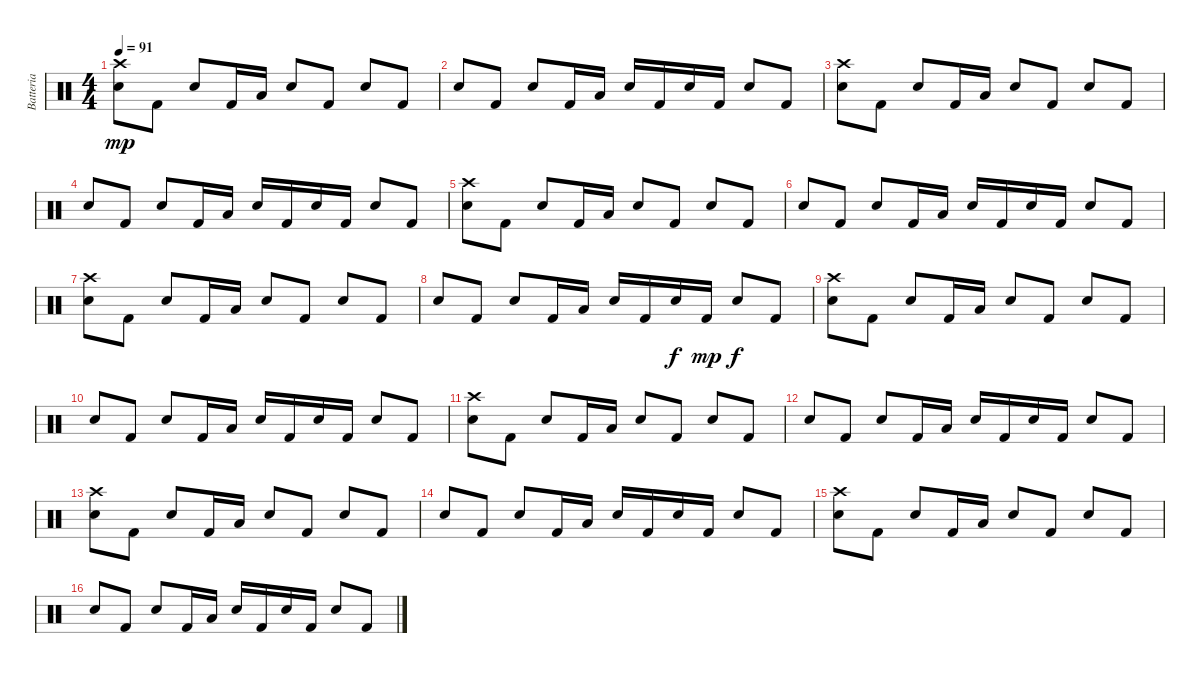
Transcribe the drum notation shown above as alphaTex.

\track ("Batteria" "Batteria") {instrument percussion}
\staff {score}
\articulation defaults
\ts (4 4)
\tempo 91
\clef neutral
\ks c
("Crash high (hit)" "Electric Snare (hit)").8{dy mp} "Kick (hit) 2".8 "Electric Snare (hit)".8 "Kick (hit) 2".16 "Low Floor Tom (hit)".16 "Electric Snare (hit)".8 "Kick (hit) 2".8 "Electric Snare (hit)".8 "Kick (hit) 2".8 |
"Electric Snare (hit)".8 "Kick (hit) 2".8 "Electric Snare (hit)".8 "Kick (hit) 2".16 "Low Floor Tom (hit)".16 "Electric Snare (hit)".16 "Kick (hit) 2".16 "Electric Snare (hit)".16 "Kick (hit) 2".16 "Electric Snare (hit)".8 "Kick (hit) 2".8 |
("Crash high (hit)" "Electric Snare (hit)").8 "Kick (hit) 2".8 "Electric Snare (hit)".8 "Kick (hit) 2".16 "Low Floor Tom (hit)".16 "Electric Snare (hit)".8 "Kick (hit) 2".8 "Electric Snare (hit)".8 "Kick (hit) 2".8 |
"Electric Snare (hit)".8 "Kick (hit) 2".8 "Electric Snare (hit)".8 "Kick (hit) 2".16 "Low Floor Tom (hit)".16 "Electric Snare (hit)".16 "Kick (hit) 2".16 "Electric Snare (hit)".16 "Kick (hit) 2".16 "Electric Snare (hit)".8 "Kick (hit) 2".8 |
("Crash high (hit)" "Electric Snare (hit)").8 "Kick (hit) 2".8 "Electric Snare (hit)".8 "Kick (hit) 2".16 "Low Floor Tom (hit)".16 "Electric Snare (hit)".8 "Kick (hit) 2".8 "Electric Snare (hit)".8 "Kick (hit) 2".8 |
"Electric Snare (hit)".8 "Kick (hit) 2".8 "Electric Snare (hit)".8 "Kick (hit) 2".16 "Low Floor Tom (hit)".16 "Electric Snare (hit)".16 "Kick (hit) 2".16 "Electric Snare (hit)".16 "Kick (hit) 2".16 "Electric Snare (hit)".8 "Kick (hit) 2".8 |
("Crash high (hit)" "Electric Snare (hit)").8 "Kick (hit) 2".8 "Electric Snare (hit)".8 "Kick (hit) 2".16 "Low Floor Tom (hit)".16 "Electric Snare (hit)".8 "Kick (hit) 2".8 "Electric Snare (hit)".8 "Kick (hit) 2".8 |
"Electric Snare (hit)".8 "Kick (hit) 2".8 "Electric Snare (hit)".8 "Kick (hit) 2".16 "Low Floor Tom (hit)".16 "Electric Snare (hit)".16 "Kick (hit) 2".16 "Electric Snare (hit)".16{dy f} "Kick (hit) 2".16{dy mp} "Electric Snare (hit)".8{dy f} "Kick (hit) 2".8 |
("Crash high (hit)" "Electric Snare (hit)").8{volume 16} "Kick (hit) 2".8 "Electric Snare (hit)".8 "Kick (hit) 2".16 "Low Floor Tom (hit)".16 "Electric Snare (hit)".8 "Kick (hit) 2".8 "Electric Snare (hit)".8 "Kick (hit) 2".8 |
"Electric Snare (hit)".8 "Kick (hit) 2".8 "Electric Snare (hit)".8 "Kick (hit) 2".16 "Low Floor Tom (hit)".16 "Electric Snare (hit)".16 "Kick (hit) 2".16 "Electric Snare (hit)".16 "Kick (hit) 2".16 "Electric Snare (hit)".8 "Kick (hit) 2".8 |
("Crash high (hit)" "Electric Snare (hit)").8 "Kick (hit) 2".8 "Electric Snare (hit)".8 "Kick (hit) 2".16 "Low Floor Tom (hit)".16 "Electric Snare (hit)".8 "Kick (hit) 2".8 "Electric Snare (hit)".8 "Kick (hit) 2".8 |
"Electric Snare (hit)".8 "Kick (hit) 2".8 "Electric Snare (hit)".8 "Kick (hit) 2".16 "Low Floor Tom (hit)".16 "Electric Snare (hit)".16 "Kick (hit) 2".16 "Electric Snare (hit)".16 "Kick (hit) 2".16 "Electric Snare (hit)".8 "Kick (hit) 2".8 |
("Crash high (hit)" "Electric Snare (hit)").8 "Kick (hit) 2".8 "Electric Snare (hit)".8 "Kick (hit) 2".16 "Low Floor Tom (hit)".16 "Electric Snare (hit)".8 "Kick (hit) 2".8 "Electric Snare (hit)".8 "Kick (hit) 2".8 |
"Electric Snare (hit)".8 "Kick (hit) 2".8 "Electric Snare (hit)".8 "Kick (hit) 2".16 "Low Floor Tom (hit)".16 "Electric Snare (hit)".16 "Kick (hit) 2".16 "Electric Snare (hit)".16 "Kick (hit) 2".16 "Electric Snare (hit)".8 "Kick (hit) 2".8 |
("Crash high (hit)" "Electric Snare (hit)").8 "Kick (hit) 2".8 "Electric Snare (hit)".8 "Kick (hit) 2".16 "Low Floor Tom (hit)".16 "Electric Snare (hit)".8 "Kick (hit) 2".8 "Electric Snare (hit)".8 "Kick (hit) 2".8 |
"Electric Snare (hit)".8 "Kick (hit) 2".8 "Electric Snare (hit)".8 "Kick (hit) 2".16 "Low Floor Tom (hit)".16 "Electric Snare (hit)".16 "Kick (hit) 2".16 "Electric Snare (hit)".16 "Kick (hit) 2".16 "Electric Snare (hit)".8 "Kick (hit) 2".8
